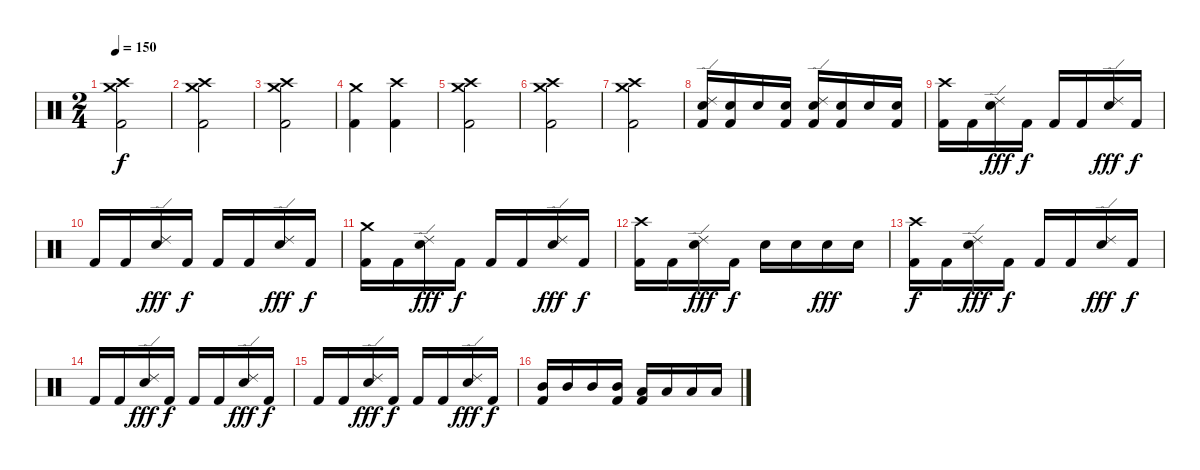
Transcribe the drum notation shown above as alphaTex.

\track "" {instrument percussion}
\staff {score}
\articulation defaults
\ts (2 4)
\tempo 150
\clef neutral
\ks c
("Kick (hit) 2" "Crash high (hit)" "Crash medium (hit)").2{dy f} |
("Crash high (hit)" "Kick (hit) 2" "Crash medium (hit)").2 |
("Kick (hit) 2" "Crash high (hit)" "Crash medium (hit)").2 |
("Kick (hit) 2" "Crash medium (hit)").4 ("Kick (hit) 2" "Crash high (hit)").4 |
("Kick (hit) 2" "Crash high (hit)" "Crash medium (hit)").2 |
("Crash high (hit)" "Kick (hit) 2" "Crash medium (hit)").2 |
("Kick (hit) 2" "Crash high (hit)" "Crash medium (hit)").2 |
("Electric Snare (hit)" "Ride (edge) 2" "Kick (hit) 2").16 ("Electric Snare (hit)" "Kick (hit) 2").16 "Electric Snare (hit)".16 ("Electric Snare (hit)" "Kick (hit) 2").16 ("Electric Snare (hit)" "Ride (edge) 2" "Kick (hit) 2").16 ("Electric Snare (hit)" "Kick (hit) 2").16 "Electric Snare (hit)".16 ("Electric Snare (hit)" "Kick (hit) 2").16 |
("Kick (hit) 2" "Crash high (hit)").16 "Kick (hit) 2".16 ("Electric Snare (hit)" "Ride (edge) 2").16{dy fff} "Kick (hit) 2".16{dy f} "Kick (hit) 2".16 "Kick (hit) 2".16 ("Electric Snare (hit)" "Ride (edge) 2").16{dy fff} "Kick (hit) 2".16{dy f} |
"Kick (hit) 2".16 "Kick (hit) 2".16 ("Electric Snare (hit)" "Ride (edge) 2").16{dy fff} "Kick (hit) 2".16{dy f} "Kick (hit) 2".16 "Kick (hit) 2".16 ("Electric Snare (hit)" "Ride (edge) 2").16{dy fff} "Kick (hit) 2".16{dy f} |
("Kick (hit) 2" "Crash medium (hit)").16 "Kick (hit) 2".16 ("Electric Snare (hit)" "Ride (edge) 2").16{dy fff} "Kick (hit) 2".16{dy f} "Kick (hit) 2".16 "Kick (hit) 2".16 ("Electric Snare (hit)" "Ride (edge) 2").16{dy fff} "Kick (hit) 2".16{dy f} |
("Kick (hit) 2" "Crash high (hit)").16 "Kick (hit) 2".16 ("Electric Snare (hit)" "Ride (edge) 2").16{dy fff} "Kick (hit) 2".16{dy f} "Electric Snare (hit)".16 "Electric Snare (hit)".16 "Electric Snare (hit)".16{dy fff} "Electric Snare (hit)".16 |
("Kick (hit) 2" "Crash high (hit)").16{dy f} "Kick (hit) 2".16 ("Electric Snare (hit)" "Ride (edge) 2").16{dy fff} "Kick (hit) 2".16{dy f} "Kick (hit) 2".16 "Kick (hit) 2".16 ("Electric Snare (hit)" "Ride (edge) 2").16{dy fff} "Kick (hit) 2".16{dy f} |
"Kick (hit) 2".16 "Kick (hit) 2".16 ("Electric Snare (hit)" "Ride (edge) 2").16{dy fff} "Kick (hit) 2".16{dy f} "Kick (hit) 2".16 "Kick (hit) 2".16 ("Electric Snare (hit)" "Ride (edge) 2").16{dy fff} "Kick (hit) 2".16{dy f} |
"Kick (hit) 2".16 "Kick (hit) 2".16 ("Electric Snare (hit)" "Ride (edge) 2").16{dy fff} "Kick (hit) 2".16{dy f} "Kick (hit) 2".16 "Kick (hit) 2".16 ("Electric Snare (hit)" "Ride (edge) 2").16{dy fff} "Kick (hit) 2".16{dy f} |
("Mid Tom (hit)" "Kick (hit) 2").16 "Mid Tom (hit)".16 "Mid Tom (hit)".16 ("Mid Tom (hit)" "Kick (hit) 2").16 ("Low Tom (hit)" "Kick (hit) 2").16 "Low Tom (hit)".16 "Low Tom (hit)".16 "Low Tom (hit)".16
